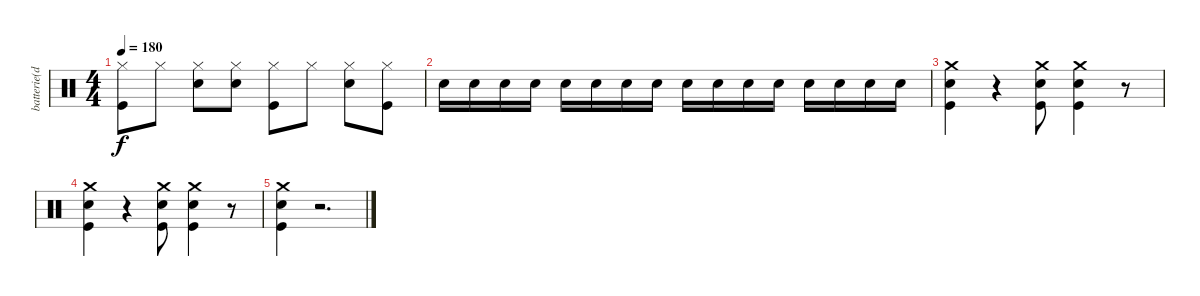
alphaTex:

\track ("batterie(dave)" "batterie(d") {instrument percussion}
\staff {score}
\articulation defaults
\ts (4 4)
\tempo 180
\clef neutral
\ks c
("Hi-Hat (closed)" "Kick (hit)").8{dy f} "Hi-Hat (closed)".8 ("Hi-Hat (closed)" "Snare (hit) 2").8 ("Hi-Hat (closed)" "Snare (hit) 2").8 ("Hi-Hat (closed)" "Kick (hit)").8 "Hi-Hat (closed)".8 ("Hi-Hat (closed)" "Snare (hit) 2").8 ("Hi-Hat (closed)" "Kick (hit)").8 |
"Snare (hit) 2".16 "Snare (hit) 2".16 "Snare (hit) 2".16 "Snare (hit) 2".16 "Snare (hit) 2".16 "Snare (hit) 2".16 "Snare (hit) 2".16 "Snare (hit) 2".16 "Snare (hit) 2".16 "Snare (hit) 2".16 "Snare (hit) 2".16 "Snare (hit) 2".16 "Snare (hit) 2".16 "Snare (hit) 2".16 "Snare (hit) 2".16 "Snare (hit) 2".16 |
("Crash medium (hit)" "Snare (hit) 2" "Kick (hit)").4 r.4 ("Crash medium (hit)" "Snare (hit) 2" "Kick (hit)").8 ("Crash medium (hit)" "Snare (hit) 2" "Kick (hit)").4 r.8 |
("Crash medium (hit)" "Snare (hit) 2" "Kick (hit)").4 r.4 ("Crash medium (hit)" "Snare (hit) 2" "Kick (hit)").8 ("Crash medium (hit)" "Snare (hit) 2" "Kick (hit)").4 r.8 |
("Crash medium (hit)" "Snare (hit) 2" "Kick (hit)").4 r.2{d}
